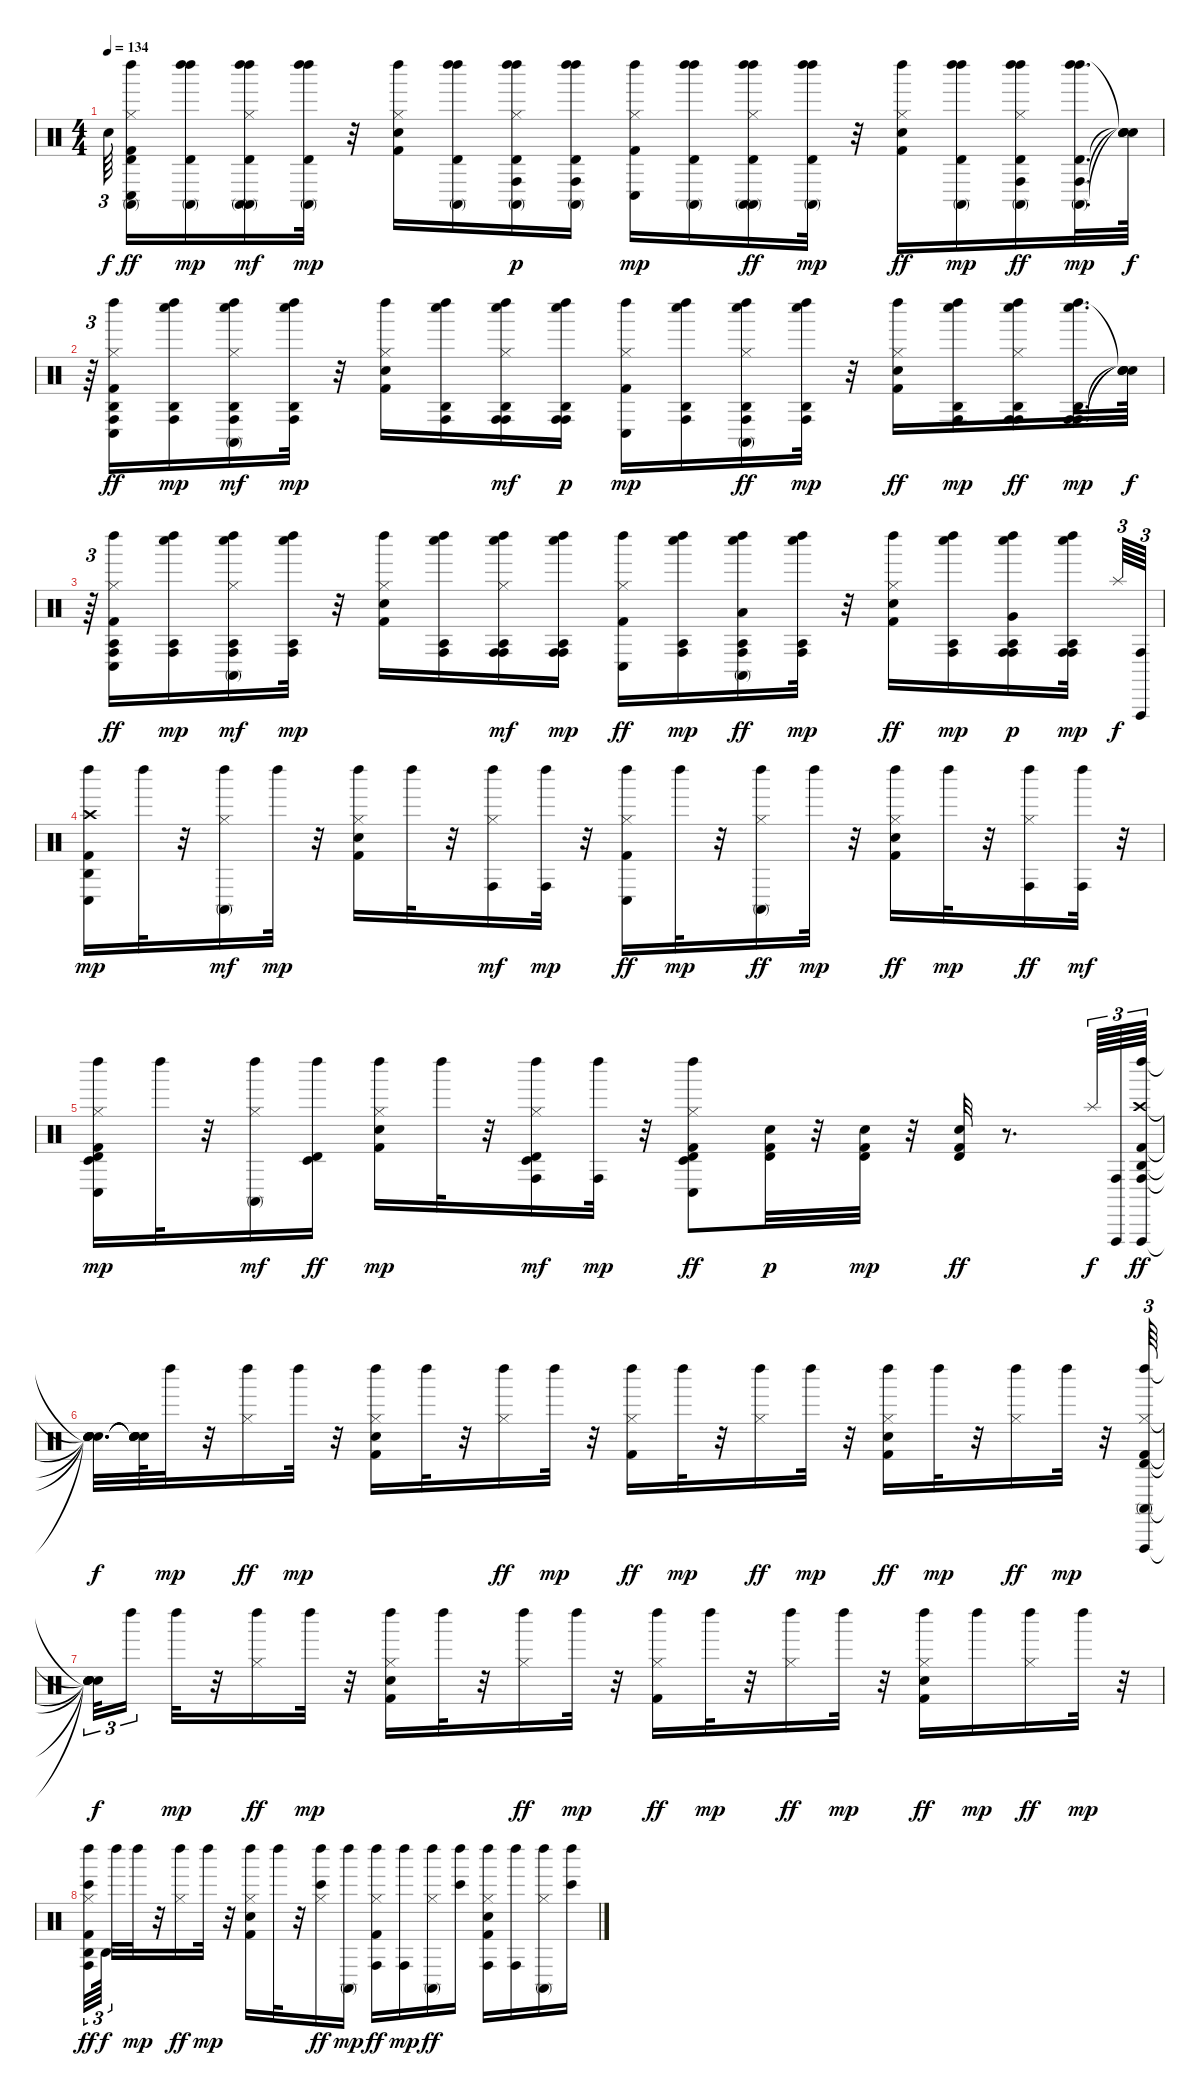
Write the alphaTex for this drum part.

\track "" {instrument percussion}
\staff {score}
\articulation defaults
\ts (4 4)
\tempo 134
\clef neutral
\ks c "Snare (hit)"{t}.64{tu (3 2) dy f beam splitsecondary}
("Left Maraca (hit)" "Conga low (hit)" "Hi-Hat (closed)" "Kick (hit) 2" "Timbale high (hit)" "Conga high (mute)").16{dy ff} ("Left Maraca (hit)" "Timbale high (hit)" "Conga high (mute)" "Left Maraca (hit)").16{dy mp} ("Left Maraca (hit)" "Timbale high (hit)" "Conga high (mute)" "Hi-Hat (closed)" "Conga high (mute)" "Left Maraca (hit)").16{dy mf} ("Left Maraca (hit)" "Timbale high (hit)" "Conga high (mute)" "Left Maraca (hit)").32{dy mp} r.32 ("Kick (hit) 2" "Snare (hit) 2" "Hi-Hat (closed)" "Left Maraca (hit)").16 ("Left Maraca (hit)" "Timbale high (hit)" "Conga high (mute)" "Left Maraca (hit)").16 ("Left Maraca (hit)" "Timbale high (hit)" "Conga high (mute)" "Hi-Hat (closed)" "Conga high (hit)" "Left Maraca (hit)").16{dy p} ("Left Maraca (hit)" "Timbale high (hit)" "Conga high (mute)" "Left Maraca (hit)" "Conga high (hit)").16 ("Kick (hit) 2" "Hi-Hat (closed)" "Conga low (hit)" "Left Maraca (hit)").16{dy mp} ("Left Maraca (hit)" "Timbale high (hit)" "Conga high (mute)" "Left Maraca (hit)").16 ("Left Maraca (hit)" "Timbale high (hit)" "Conga high (mute)" "Left Maraca (hit)" "Conga high (mute)" "Hi-Hat (closed)").16{dy ff} ("Left Maraca (hit)" "Timbale high (hit)" "Conga high (mute)" "Left Maraca (hit)").32{dy mp} r.32 ("Left Maraca (hit)" "Hi-Hat (closed)" "Snare (hit) 2" "Kick (hit) 2").16{dy ff} ("Left Maraca (hit)" "Timbale high (hit)" "Conga high (mute)" "Left Maraca (hit)").16{dy mp} ("Left Maraca (hit)" "Timbale high (hit)" "Conga high (mute)" "Left Maraca (hit)" "Conga high (hit)" "Hi-Hat (closed)").16{dy ff} ("Left Maraca (hit)" "Timbale high (hit)" "Conga high (mute)" "Conga high (hit)" "Left Maraca (hit)").32{d dy mp} ("Snare (hit)"{t} "Snare (hit)"{t} "Snare (hit)"{t} "Snare (hit)"{t}).64{dy f} |
r.64{tu (3 2)} ("Left Maraca (hit)" "Conga low (hit)" "Hi-Hat (closed)" "Kick (hit) 2" "Agogo high (hit)" "Conga high (hit)").16{dy ff} ("Whistle low (hit)" "Agogo high (hit)" "Conga high (hit)" "Left Maraca (hit)").16{dy mp} ("Whistle low (hit)" "Agogo high (hit)" "Conga high (hit)" "Hi-Hat (closed)" "Conga high (mute)" "Left Maraca (hit)").16{dy mf} ("Whistle low (hit)" "Agogo high (hit)" "Conga high (hit)" "Left Maraca (hit)").32{dy mp} r.32 ("Kick (hit) 2" "Snare (hit) 2" "Hi-Hat (closed)" "Left Maraca (hit)").16 ("Whistle low (hit)" "Agogo high (hit)" "Conga high (hit)" "Left Maraca (hit)").16 ("Whistle low (hit)" "Agogo high (hit)" "Conga high (hit)" "Hi-Hat (closed)" "Conga high (hit)" "Left Maraca (hit)").16{dy mf} ("Whistle low (hit)" "Agogo high (hit)" "Conga high (hit)" "Left Maraca (hit)" "Conga high (hit)").16{dy p} ("Kick (hit) 2" "Hi-Hat (closed)" "Conga low (hit)" "Left Maraca (hit)").16{dy mp} ("Whistle low (hit)" "Agogo high (hit)" "Conga high (hit)" "Left Maraca (hit)").16 ("Whistle low (hit)" "Agogo high (hit)" "Conga high (hit)" "Left Maraca (hit)" "Conga high (mute)" "Hi-Hat (closed)").16{dy ff} ("Whistle low (hit)" "Agogo high (hit)" "Conga high (hit)" "Left Maraca (hit)").32{dy mp} r.32 ("Left Maraca (hit)" "Hi-Hat (closed)" "Snare (hit) 2" "Kick (hit) 2").16{dy ff} ("Whistle low (hit)" "Agogo high (hit)" "Conga high (hit)" "Left Maraca (hit)").16{dy mp} ("Whistle low (hit)" "Agogo high (hit)" "Conga high (hit)" "Left Maraca (hit)" "Conga high (hit)" "Hi-Hat (closed)").16{dy ff} ("Whistle low (hit)" "Agogo high (hit)" "Conga high (hit)" "Conga high (hit)" "Left Maraca (hit)").32{d dy mp} ("Snare (hit)"{t} "Snare (hit)"{t} "Snare (hit)"{t} "Snare (hit)"{t}).64{dy f} |
r.64{tu (3 2)} ("Kick (hit) 2" "Hi-Hat (closed)" "Conga low (hit)" "Left Maraca (hit)" "Agogo tow (hit)" "Conga high (hit)").16{dy ff} ("Whistle low (hit)" "Agogo tow (hit)" "Conga high (hit)" "Left Maraca (hit)").16{dy mp} ("Whistle low (hit)" "Agogo tow (hit)" "Conga high (hit)" "Hi-Hat (closed)" "Conga high (mute)" "Left Maraca (hit)").16{dy mf} ("Whistle low (hit)" "Agogo tow (hit)" "Conga high (hit)" "Left Maraca (hit)").32{dy mp} r.32 ("Kick (hit) 2" "Snare (hit) 2" "Hi-Hat (closed)" "Left Maraca (hit)").16 ("Whistle low (hit)" "Agogo tow (hit)" "Conga high (hit)" "Left Maraca (hit)").16 ("Whistle low (hit)" "Agogo tow (hit)" "Conga high (hit)" "Hi-Hat (closed)" "Conga high (hit)" "Left Maraca (hit)").16{dy mf} ("Whistle low (hit)" "Agogo tow (hit)" "Conga high (hit)" "Left Maraca (hit)" "Conga high (hit)").16{dy mp} ("Left Maraca (hit)" "Conga low (hit)" "Hi-Hat (closed)" "Kick (hit) 2").16{dy ff} ("Whistle low (hit)" "Agogo tow (hit)" "Conga high (hit)" "Left Maraca (hit)").16{dy mp} ("Whistle low (hit)" "Agogo tow (hit)" "Conga high (hit)" "Left Maraca (hit)" "Conga high (mute)" "Low Tom (hit)").16{dy ff} ("Whistle low (hit)" "Agogo tow (hit)" "Conga high (hit)" "Left Maraca (hit)").32{dy mp} r.32 ("Left Maraca (hit)" "Hi-Hat (closed)" "Snare (hit) 2" "Kick (hit) 2").16{dy ff} ("Whistle low (hit)" "Agogo tow (hit)" "Conga high (hit)" "Left Maraca (hit)").16{dy mp} ("Whistle low (hit)" "Agogo tow (hit)" "Conga high (hit)" "Left Maraca (hit)" "Conga high (hit)" "Very Low Tom (hit)").16{dy p} ("Conga high (hit)" "Agogo tow (hit)" "Whistle low (hit)" "Conga high (hit)" "Left Maraca (hit)").32{dy mp beam splitsecondary} "Splash (hit)".64{tu (3 2) dy f} ("Conga high (hit)" "Vibraslap (hit)").64{tu (3 2)} |
("Agogo high (hit)" "Kick (hit) 2" "Crash high (hit)" "Conga low (hit)" "Left Maraca (hit)").16{dy mp} "Left Maraca (hit)".32 r.32 ("Hi-Hat (closed)" "Conga high (mute)" "Left Maraca (hit)").16{dy mf} "Left Maraca (hit)".32{dy mp} r.32 ("Kick (hit) 2" "Snare (hit) 2" "Hi-Hat (closed)" "Left Maraca (hit)").16 "Left Maraca (hit)".32 r.32 ("Hi-Hat (closed)" "Conga high (hit)" "Left Maraca (hit)").16{dy mf} ("Conga high (hit)" "Left Maraca (hit)").32{dy mp} r.32 ("Left Maraca (hit)" "Conga low (hit)" "Hi-Hat (closed)" "Kick (hit) 2").16{dy ff} "Left Maraca (hit)".32{dy mp} r.32 ("Left Maraca (hit)" "Conga high (mute)" "Hi-Hat (closed)").16{dy ff} "Left Maraca (hit)".32{dy mp} r.32 ("Left Maraca (hit)" "Hi-Hat (closed)" "Snare (hit) 2" "Kick (hit) 2").16{dy ff} "Left Maraca (hit)".32{dy mp} r.32 ("Left Maraca (hit)" "Conga high (hit)" "Hi-Hat (closed)").16{dy ff} ("Left Maraca (hit)" "Conga high (hit)").32{dy mf} r.32 |
("Timbale low (hit)" "Timbale high (hit)" "Kick (hit) 2" "Hi-Hat (closed)" "Conga low (hit)" "Left Maraca (hit)").16{dy mp} "Left Maraca (hit)".32 r.32 ("Hi-Hat (closed)" "Conga high (mute)" "Left Maraca (hit)").16{dy mf} ("Timbale high (hit)" "Left Maraca (hit)" "Timbale low (hit)").16{dy ff} ("Kick (hit) 2" "Snare (hit) 2" "Hi-Hat (closed)" "Left Maraca (hit)").16{dy mp} "Left Maraca (hit)".32 r.32 ("Timbale high (hit)" "Timbale low (hit)" "Hi-Hat (closed)" "Conga high (hit)" "Left Maraca (hit)").16{dy mf} ("Conga high (hit)" "Left Maraca (hit)").32{dy mp} r.32 ("Timbale low (hit)" "Left Maraca (hit)" "Conga low (hit)" "Hi-Hat (closed)" "Kick (hit) 2" "Timbale high (hit)").8{dy ff} ("Timbale high (hit)" "Snare (hit) 2" "Kick (hit) 2").32{dy p} r.32 ("Kick (hit) 2" "Snare (hit) 2" "Timbale high (hit)").32{dy mp} r.32 ("Timbale high (hit)" "Snare (hit) 2" "Kick (hit) 2").32{dy ff} r.8{d} "Splash (hit)".64{tu (3 2) dy f} ("Conga high (hit)" "Vibraslap (hit)").64{tu (3 2)} ("Agogo high (hit)" "Kick (hit) 2" "Crash high (hit)" "Left Maraca (hit)" "Conga high (hit)" "Vibraslap (hit)").64{tu (3 2) dy ff} |
("Snare (hit)"{t} "Snare (hit)"{t} "Snare (hit)"{t} "Snare (hit)"{t} "Snare (hit)"{t} "Snare (hit)"{t}).32{d dy f} ("Snare (hit)"{t} "Snare (hit)"{t} "Snare (hit)"{t} "Snare (hit)"{t} "Snare (hit)"{t}).64 "Left Maraca (hit)".32{dy mp} r.32 ("Hi-Hat (closed)" "Left Maraca (hit)").16{dy ff} "Left Maraca (hit)".32{dy mp} r.32 ("Kick (hit) 2" "Snare (hit) 2" "Hi-Hat (closed)" "Left Maraca (hit)").16 "Left Maraca (hit)".32 r.32 ("Left Maraca (hit)" "Hi-Hat (closed)").16{dy ff} "Left Maraca (hit)".32{dy mp} r.32 ("Left Maraca (hit)" "Hi-Hat (closed)" "Kick (hit) 2").16{dy ff} "Left Maraca (hit)".32{dy mp} r.32 ("Left Maraca (hit)" "Hi-Hat (closed)").16{dy ff} "Left Maraca (hit)".32{dy mp} r.32 ("Left Maraca (hit)" "Hi-Hat (closed)" "Snare (hit) 2" "Kick (hit) 2").16{dy ff} "Left Maraca (hit)".32{dy mp} r.32 ("Hi-Hat (closed)" "Left Maraca (hit)").16{dy ff} "Left Maraca (hit)".32{dy mp} r.32 ("Vibraslap (hit)" "Conga high (mute)" "Kick (hit) 2" "Hi-Hat (closed)" "Left Maraca (hit)" "Timbale high (hit)").64{tu (3 2)} |
("Snare (hit)"{t} "Snare (hit)"{t} "Snare (hit)"{t} "Snare (hit)"{t} "Snare (hit)"{t} "Snare (hit)"{t}).32{tu (3 2) dy f} "Left Maraca (hit)".16{tu (3 2) beam splitsecondary} "Left Maraca (hit)".32{dy mp} r.32 ("Hi-Hat (closed)" "Left Maraca (hit)").16{dy ff} "Left Maraca (hit)".32{dy mp} r.32 ("Kick (hit) 2" "Snare (hit) 2" "Hi-Hat (closed)" "Left Maraca (hit)").16 "Left Maraca (hit)".32 r.32 ("Left Maraca (hit)" "Hi-Hat (closed)").16{dy ff} "Left Maraca (hit)".32{dy mp} r.32 ("Left Maraca (hit)" "Hi-Hat (closed)" "Kick (hit) 2").16{dy ff} "Left Maraca (hit)".32{dy mp} r.32 ("Left Maraca (hit)" "Hi-Hat (closed)").16{dy ff} "Left Maraca (hit)".32{dy mp} r.32 ("Left Maraca (hit)" "Hi-Hat (closed)" "Snare (hit) 2" "Kick (hit) 2").16{dy ff} "Left Maraca (hit)".16{dy mp} ("Hi-Hat (closed)" "Left Maraca (hit)").16{dy ff} "Left Maraca (hit)".32{dy mp} r.32 |
("Bongo High (hit)" "Kick (hit) 2" "Hi-Hat (closed)" "Left Maraca (hit)" "Agogo high (hit)" "Conga high (hit)").32{tu (3 2) dy ff} "Agogo high (hit)".64{tu (3 2) dy f beam splitsecondary} "Left Maraca (hit)".32 "Left Maraca (hit)".32{dy mp} r.32 ("Hi-Hat (closed)" "Left Maraca (hit)").16{dy ff} "Left Maraca (hit)".32{dy mp} r.32 ("Kick (hit) 2" "Snare (hit) 2" "Hi-Hat (closed)" "Left Maraca (hit)").16 "Left Maraca (hit)".32 r.32 ("Bongo High (hit)" "Left Maraca (hit)" "Hi-Hat (closed)").16{dy ff} ("Conga high (mute)" "Left Maraca (hit)").16{dy mp} ("Conga high (hit)" "Left Maraca (hit)" "Hi-Hat (closed)" "Kick (hit) 2").16{dy ff} ("Conga high (hit)" "Left Maraca (hit)").16{dy mp} ("Conga high (mute)" "Left Maraca (hit)" "Hi-Hat (closed)").16{dy ff} ("Left Maraca (hit)" "Bongo High (hit)").16 ("Left Maraca (hit)" "Hi-Hat (closed)" "Snare (hit) 2" "Kick (hit) 2" "Conga high (hit)").16 ("Left Maraca (hit)" "Conga high (hit)").16 ("Hi-Hat (closed)" "Left Maraca (hit)" "Conga high (mute)").16 ("Left Maraca (hit)" "Bongo High (hit)").16
